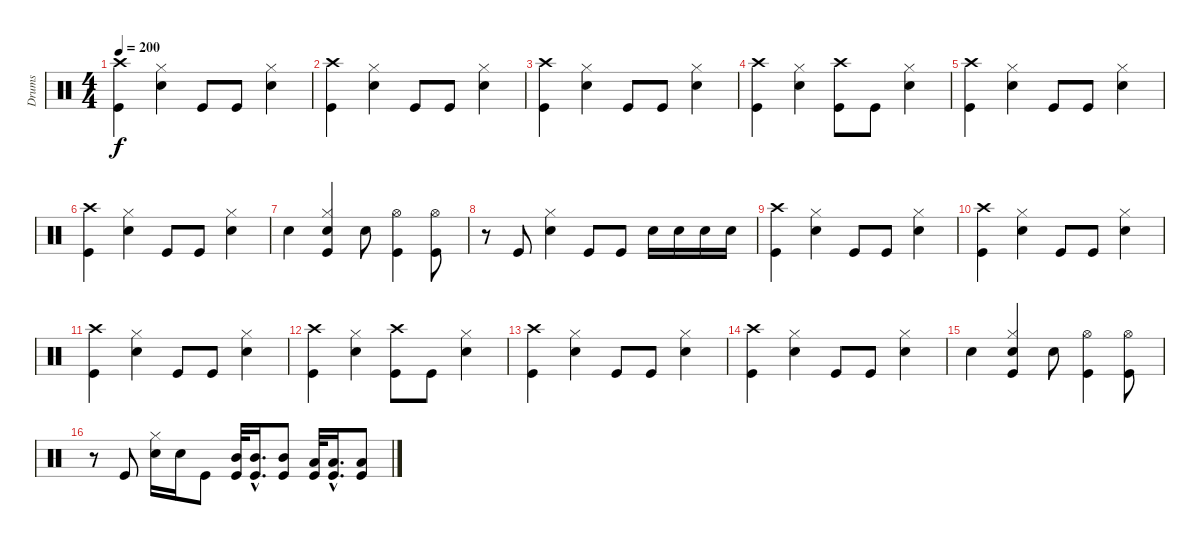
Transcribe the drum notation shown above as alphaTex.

\track ("Drums" "Drums") {instrument percussion}
\staff {score}
\articulation defaults
\ts (4 4)
\tempo 200
\clef neutral
\ks c
("Crash high (hit)" "Kick (hit)").4{dy f} ("Hi-Hat (closed)" "Snare (hit) 2").4 "Kick (hit)".8 "Kick (hit)".8 ("Hi-Hat (closed)" "Snare (hit) 2").4 |
("Crash high (hit)" "Kick (hit)").4 ("Hi-Hat (closed)" "Snare (hit) 2").4 "Kick (hit)".8 "Kick (hit)".8 ("Hi-Hat (closed)" "Snare (hit) 2").4 |
("Crash high (hit)" "Kick (hit)").4 ("Hi-Hat (closed)" "Snare (hit) 2").4 "Kick (hit)".8 "Kick (hit)".8 ("Hi-Hat (closed)" "Snare (hit) 2").4 |
("Crash high (hit)" "Kick (hit)").4 ("Hi-Hat (closed)" "Snare (hit) 2").4 ("Crash high (hit)" "Kick (hit)").8 "Kick (hit)".8 ("Hi-Hat (closed)" "Snare (hit) 2").4 |
("Crash high (hit)" "Kick (hit)").4 ("Hi-Hat (closed)" "Snare (hit) 2").4 "Kick (hit)".8 "Kick (hit)".8 ("Hi-Hat (closed)" "Snare (hit) 2").4 |
("Crash high (hit)" "Kick (hit)").4 ("Hi-Hat (closed)" "Snare (hit) 2").4 "Kick (hit)".8 "Kick (hit)".8 ("Hi-Hat (closed)" "Snare (hit) 2").4 |
"Snare (hit) 2".4 ("Hi-Hat (closed)" "Snare (hit) 2" "Kick (hit)").4 "Snare (hit) 2".8 ("Hi-Hat (open)" "Kick (hit)").4 ("Hi-Hat (open)" "Kick (hit)").8 |
r.8 "Kick (hit)".8 ("Hi-Hat (closed)" "Snare (hit) 2").4 "Kick (hit)".8 "Kick (hit)".8 "Snare (hit) 2".16 "Snare (hit) 2".16 "Snare (hit) 2".16 "Snare (hit) 2".16 |
("Crash high (hit)" "Kick (hit)").4 ("Hi-Hat (closed)" "Snare (hit) 2").4 "Kick (hit)".8 "Kick (hit)".8 ("Hi-Hat (closed)" "Snare (hit) 2").4 |
("Crash high (hit)" "Kick (hit)").4 ("Hi-Hat (closed)" "Snare (hit) 2").4 "Kick (hit)".8 "Kick (hit)".8 ("Hi-Hat (closed)" "Snare (hit) 2").4 |
("Crash high (hit)" "Kick (hit)").4 ("Hi-Hat (closed)" "Snare (hit) 2").4 "Kick (hit)".8 "Kick (hit)".8 ("Hi-Hat (closed)" "Snare (hit) 2").4 |
("Crash high (hit)" "Kick (hit)").4 ("Hi-Hat (closed)" "Snare (hit) 2").4 ("Crash high (hit)" "Kick (hit)").8 "Kick (hit)".8 ("Hi-Hat (closed)" "Snare (hit) 2").4 |
("Crash high (hit)" "Kick (hit)").4 ("Hi-Hat (closed)" "Snare (hit) 2").4 "Kick (hit)".8 "Kick (hit)".8 ("Hi-Hat (closed)" "Snare (hit) 2").4 |
("Crash high (hit)" "Kick (hit)").4 ("Hi-Hat (closed)" "Snare (hit) 2").4 "Kick (hit)".8 "Kick (hit)".8 ("Hi-Hat (closed)" "Snare (hit) 2").4 |
"Snare (hit) 2".4 ("Hi-Hat (closed)" "Snare (hit) 2" "Kick (hit)").4 "Snare (hit) 2".8 ("Hi-Hat (open)" "Kick (hit)").4 ("Hi-Hat (open)" "Kick (hit)").8 |
r.8 "Kick (hit)".8 ("Hi-Hat (closed)" "Snare (hit) 2").16 "Snare (hit) 2".16 "Kick (hit)".8 ("Mid Tom (hit)" "Kick (hit)").32 ("Mid Tom (hit)"{hac} "Kick (hit)"{hac}).16{d} ("Mid Tom (hit)" "Kick (hit)").8 ("Low Tom (hit)" "Kick (hit)").32 ("Low Tom (hit)"{hac} "Kick (hit)"{hac}).16{d} ("Low Tom (hit)" "Kick (hit)").8
